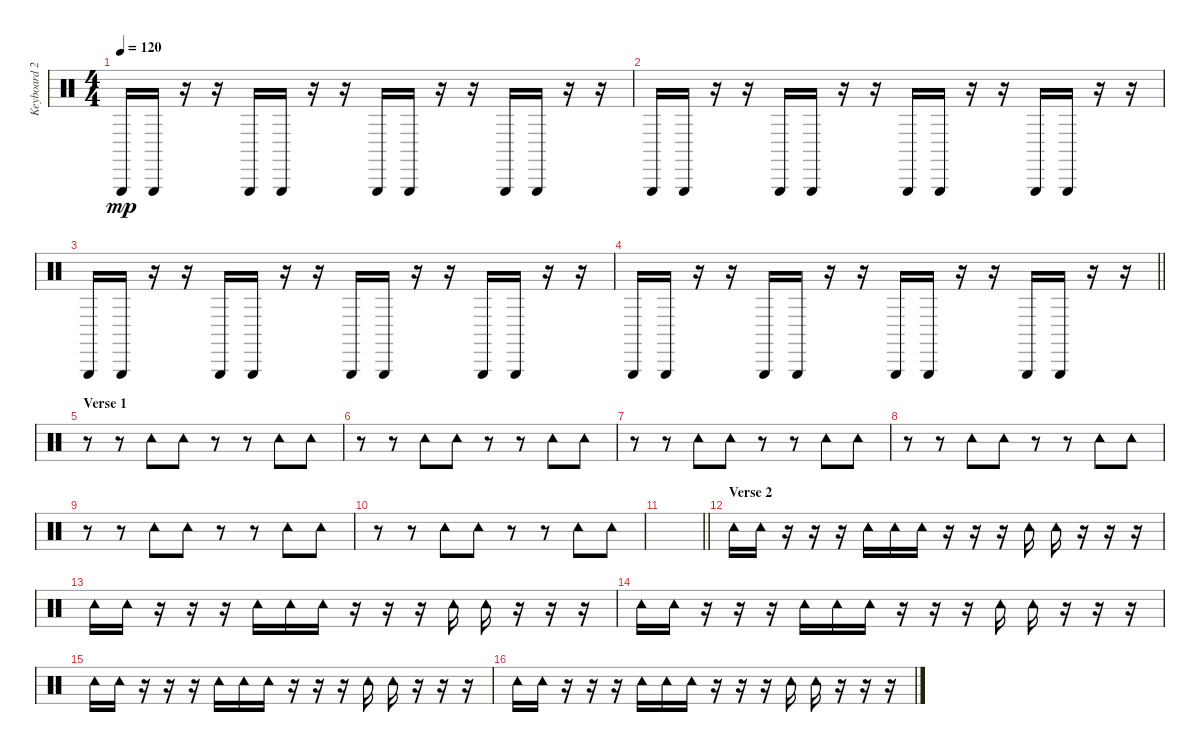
\track ("Keyboard 2" "Keyboard 2") {instrument percussion}
\staff {score}
\articulation defaults
\ts (4 4)
\tempo 120
\clef neutral
\ks c "Triangle (hit)".16{dy mp} "Triangle (hit)".16
r.16 r.16 "Triangle (hit)".16 "Triangle (hit)".16 r.16 r.16 "Triangle (hit)".16 "Triangle (hit)".16 r.16 r.16 "Triangle (hit)".16 "Triangle (hit)".16 r.16 r.16 |
"Triangle (hit)".16 "Triangle (hit)".16 r.16 r.16 "Triangle (hit)".16 "Triangle (hit)".16 r.16 r.16 "Triangle (hit)".16 "Triangle (hit)".16 r.16 r.16 "Triangle (hit)".16 "Triangle (hit)".16 r.16 r.16 |
"Triangle (hit)".16 "Triangle (hit)".16 r.16 r.16 "Triangle (hit)".16 "Triangle (hit)".16 r.16 r.16 "Triangle (hit)".16 "Triangle (hit)".16 r.16 r.16 "Triangle (hit)".16 "Triangle (hit)".16 r.16 r.16 |
\barLineRight lightlight "Triangle (hit)".16 "Triangle (hit)".16
r.16 r.16 "Triangle (hit)".16 "Triangle (hit)".16 r.16 r.16 "Triangle (hit)".16 "Triangle (hit)".16 r.16 r.16 "Triangle (hit)".16 "Triangle (hit)".16 r.16 r.16 |
\section ("" "Verse 1")
r.8 r.8 "Tambourine (hit)".8 "Tambourine (hit)".8 r.8 r.8 "Tambourine (hit)".8 "Tambourine (hit)".8 |
r.8 r.8 "Tambourine (hit)".8 "Tambourine (hit)".8 r.8 r.8 "Tambourine (hit)".8 "Tambourine (hit)".8 |
r.8 r.8 "Tambourine (hit)".8 "Tambourine (hit)".8 r.8 r.8 "Tambourine (hit)".8 "Tambourine (hit)".8 |
r.8 r.8 "Tambourine (hit)".8 "Tambourine (hit)".8 r.8 r.8 "Tambourine (hit)".8 "Tambourine (hit)".8 |
r.8 r.8 "Tambourine (hit)".8 "Tambourine (hit)".8 r.8 r.8 "Tambourine (hit)".8 "Tambourine (hit)".8 |
r.8 r.8 "Tambourine (hit)".8 "Tambourine (hit)".8 r.8 r.8 "Tambourine (hit)".8 "Tambourine (hit)".8 |
\barLineRight lightlight
|
\section ("" "Verse 2")
"Tambourine (hit)".16 "Tambourine (hit)".16 r.16 r.16 r.16 "Tambourine (hit)".16 "Tambourine (hit)".16 "Tambourine (hit)".16 r.16 r.16 r.16 "Tambourine (hit)".16 "Tambourine (hit)".16 r.16 r.16 r.16 |
"Tambourine (hit)".16 "Tambourine (hit)".16 r.16 r.16 r.16 "Tambourine (hit)".16 "Tambourine (hit)".16 "Tambourine (hit)".16 r.16 r.16 r.16 "Tambourine (hit)".16 "Tambourine (hit)".16 r.16 r.16 r.16 |
"Tambourine (hit)".16 "Tambourine (hit)".16 r.16 r.16 r.16 "Tambourine (hit)".16 "Tambourine (hit)".16 "Tambourine (hit)".16 r.16 r.16 r.16 "Tambourine (hit)".16 "Tambourine (hit)".16 r.16 r.16 r.16 |
"Tambourine (hit)".16 "Tambourine (hit)".16 r.16 r.16 r.16 "Tambourine (hit)".16 "Tambourine (hit)".16 "Tambourine (hit)".16 r.16 r.16 r.16 "Tambourine (hit)".16 "Tambourine (hit)".16 r.16 r.16 r.16 |
"Tambourine (hit)".16 "Tambourine (hit)".16 r.16 r.16 r.16 "Tambourine (hit)".16 "Tambourine (hit)".16 "Tambourine (hit)".16 r.16 r.16 r.16 "Tambourine (hit)".16 "Tambourine (hit)".16 r.16 r.16 r.16
